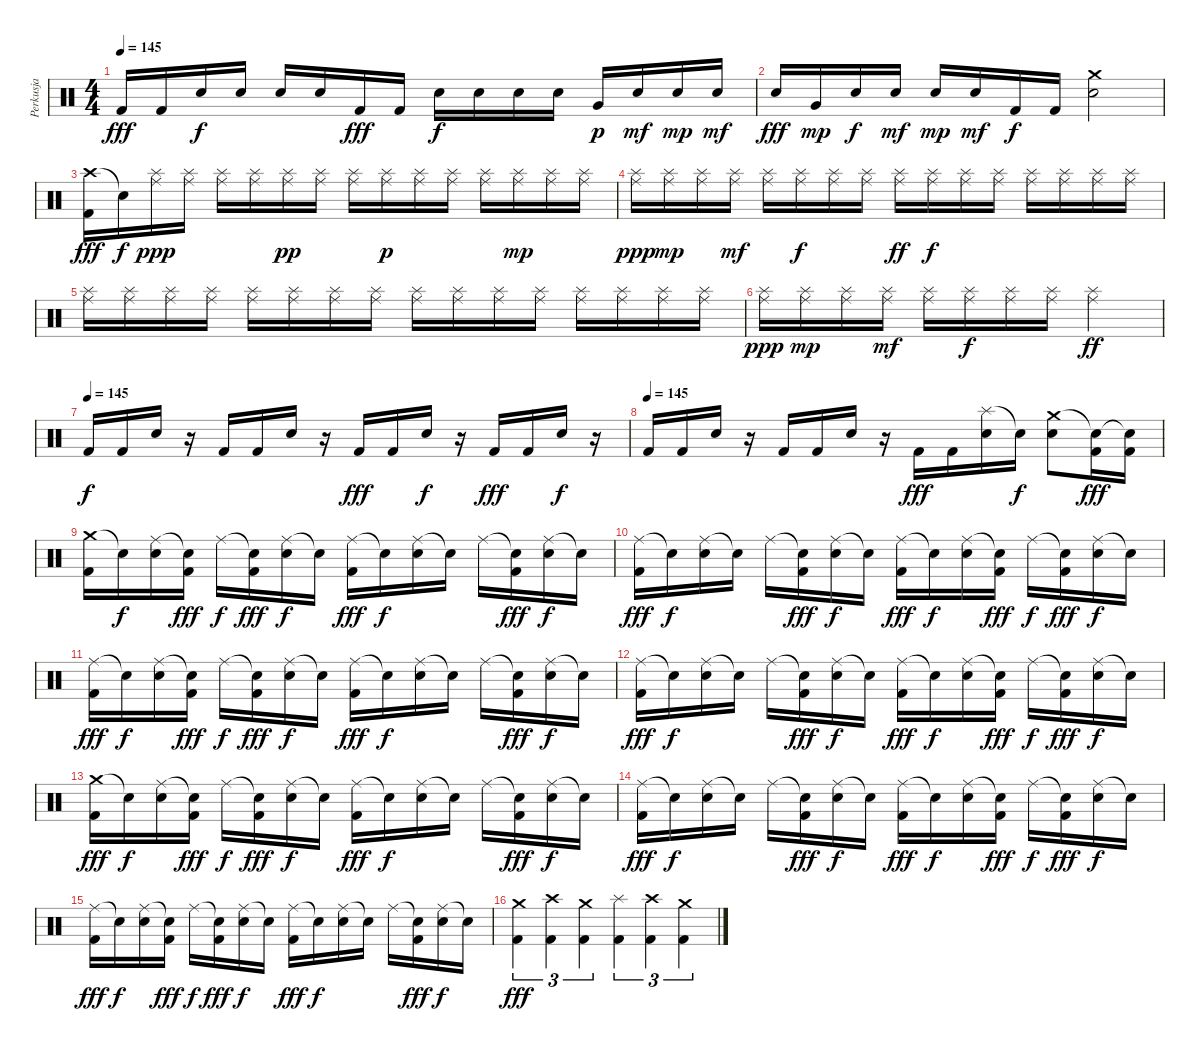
\track ("Perkusja" "Perkusja") {instrument percussion}
\staff {score}
\articulation defaults
\ts (4 4)
\tempo 145
\tempo 165
\tempo 145
\clef neutral
\ks c "Kick (hit) 2".16{dy fff} "Kick (hit) 2".16 "Electric Snare (hit)".16{dy f} "Electric Snare (hit)".16 "Electric Snare (hit)".16 "Electric Snare (hit)".16 "Kick (hit) 2".16{dy fff} "Kick (hit) 2".16 "Electric Snare (hit)".16{dy f} "Electric Snare (hit)".16 "Electric Snare (hit)".16 "Electric Snare (hit)".16 "Very Low Tom (hit)".16{dy p} "Electric Snare (hit)".16{dy mf} "Electric Snare (hit)".16{dy mp} "Electric Snare (hit)".16{dy mf}
|
"Electric Snare (hit)".16{dy fff} "Very Low Tom (hit)".16{dy mp} "Electric Snare (hit)".16{dy f} "Electric Snare (hit)".16{dy mf} "Electric Snare (hit)".16{dy mp} "Electric Snare (hit)".16{dy mf} "Kick (hit) 2".16{dy f} "Kick (hit) 2".16 ("Crash medium (hit)" "Electric Snare (hit)").2 |
("Crash high (hit)" "Kick (hit) 2").16{dy fff} "Snare (hit)"{t}.16{dy f} ("Splash (hit)" "Ride (middle)").16{dy ppp} ("Splash (hit)" "Ride (middle)").16 ("Splash (hit)" "Ride (middle)").16 ("Splash (hit)" "Ride (middle)").16 ("Splash (hit)" "Ride (middle)").16{dy pp} ("Splash (hit)" "Ride (middle)").16 ("Splash (hit)" "Ride (middle)").16 ("Splash (hit)" "Ride (middle)").16{dy p} ("Splash (hit)" "Ride (middle)").16 ("Splash (hit)" "Ride (middle)").16 ("Splash (hit)" "Ride (middle)").16 ("Splash (hit)" "Ride (middle)").16{dy mp} ("Splash (hit)" "Ride (middle)").16 ("Splash (hit)" "Ride (middle)").16 |
("Splash (hit)" "Ride (middle)").16{dy ppp} ("Splash (hit)" "Ride (middle)").16{dy mp} ("Splash (hit)" "Ride (middle)").16 ("Splash (hit)" "Ride (middle)").16{dy mf} ("Splash (hit)" "Ride (middle)").16 ("Splash (hit)" "Ride (middle)").16{dy f} ("Splash (hit)" "Ride (middle)").16 ("Splash (hit)" "Ride (middle)").16 ("Splash (hit)" "Ride (middle)").16{dy ff} ("Splash (hit)" "Ride (middle)").16{dy f} ("Splash (hit)" "Ride (middle)").16 ("Splash (hit)" "Ride (middle)").16 ("Splash (hit)" "Ride (middle)").16 ("Splash (hit)" "Ride (middle)").16 ("Splash (hit)" "Ride (middle)").16 ("Splash (hit)" "Ride (middle)").16 |
("Splash (hit)" "Ride (middle)").16 ("Splash (hit)" "Ride (middle)").16 ("Splash (hit)" "Ride (middle)").16 ("Splash (hit)" "Ride (middle)").16 ("Splash (hit)" "Ride (middle)").16 ("Splash (hit)" "Ride (middle)").16 ("Splash (hit)" "Ride (middle)").16 ("Splash (hit)" "Ride (middle)").16 ("Splash (hit)" "Ride (middle)").16 ("Splash (hit)" "Ride (middle)").16 ("Splash (hit)" "Ride (middle)").16 ("Splash (hit)" "Ride (middle)").16 ("Splash (hit)" "Ride (middle)").16 ("Splash (hit)" "Ride (middle)").16 ("Splash (hit)" "Ride (middle)").16 ("Splash (hit)" "Ride (middle)").16 |
("Splash (hit)" "Ride (middle)").16{dy ppp} ("Splash (hit)" "Ride (middle)").16{dy mp} ("Splash (hit)" "Ride (middle)").16 ("Splash (hit)" "Ride (middle)").16{dy mf} ("Splash (hit)" "Ride (middle)").16 ("Splash (hit)" "Ride (middle)").16{dy f} ("Splash (hit)" "Ride (middle)").16 ("Splash (hit)" "Ride (middle)").16 ("Splash (hit)" "Ride (middle)").2{dy ff} |
\tempo (145)
"Kick (hit) 2".16{dy f} "Kick (hit) 2".16 "Electric Snare (hit)".16 r.16 "Kick (hit) 2".16 "Kick (hit) 2".16 "Electric Snare (hit)".16 r.16 "Kick (hit) 2".16{dy fff} "Kick (hit) 2".16 "Electric Snare (hit)".16{dy f} r.16 "Kick (hit) 2".16{dy fff} "Kick (hit) 2".16 "Electric Snare (hit)".16{dy f} r.16 |
\tempo (145)
"Kick (hit) 2".16 "Kick (hit) 2".16 "Electric Snare (hit)".16 r.16 "Kick (hit) 2".16 "Kick (hit) 2".16 "Electric Snare (hit)".16 r.16 "Kick (hit) 2".16{dy fff} "Kick (hit) 2".16 ("Splash (hit)" "Electric Snare (hit)").16 "Snare (hit)"{t}.16{dy f} ("Crash medium (hit)" "Electric Snare (hit)").8 ("Snare (hit)"{t} "Kick (hit) 2").16{dy fff} ("Snare (hit)"{t} "Kick (hit) 2").16 |
("Crash medium (hit)" "Kick (hit) 2").16 "Snare (hit)"{t}.16{dy f} ("Ride (middle)" "Electric Snare (hit)").16 ("Snare (hit)"{t} "Kick (hit) 2").16{dy fff} "Ride (middle)".16{dy f} ("Snare (hit)"{t} "Kick (hit) 2").16{dy fff} ("Ride (middle)" "Electric Snare (hit)").16{dy f} "Snare (hit)"{t}.16 ("Ride (middle)" "Kick (hit) 2").16{dy fff} "Snare (hit)"{t}.16{dy f} ("Ride (middle)" "Electric Snare (hit)").16 "Snare (hit)"{t}.16 "Ride (middle)".16 ("Snare (hit)"{t} "Kick (hit) 2").16{dy fff} ("Ride (middle)" "Electric Snare (hit)").16{dy f} "Snare (hit)"{t}.16 |
("Ride (middle)" "Kick (hit) 2").16{dy fff} "Snare (hit)"{t}.16{dy f} ("Ride (middle)" "Electric Snare (hit)").16 "Snare (hit)"{t}.16 "Ride (middle)".16 ("Snare (hit)"{t} "Kick (hit) 2").16{dy fff} ("Ride (middle)" "Electric Snare (hit)").16{dy f} "Snare (hit)"{t}.16 ("Ride (middle)" "Kick (hit) 2").16{dy fff} "Snare (hit)"{t}.16{dy f} ("Ride (middle)" "Electric Snare (hit)").16 ("Snare (hit)"{t} "Kick (hit) 2").16{dy fff} "Ride (middle)".16{dy f} ("Snare (hit)"{t} "Kick (hit) 2").16{dy fff} ("Ride (middle)" "Electric Snare (hit)").16{dy f} "Snare (hit)"{t}.16 |
("Ride (middle)" "Kick (hit) 2").16{dy fff} "Snare (hit)"{t}.16{dy f} ("Ride (middle)" "Electric Snare (hit)").16 ("Snare (hit)"{t} "Kick (hit) 2").16{dy fff} "Ride (middle)".16{dy f} ("Snare (hit)"{t} "Kick (hit) 2").16{dy fff} ("Ride (middle)" "Electric Snare (hit)").16{dy f} "Snare (hit)"{t}.16 ("Ride (middle)" "Kick (hit) 2").16{dy fff} "Snare (hit)"{t}.16{dy f} ("Ride (middle)" "Electric Snare (hit)").16 "Snare (hit)"{t}.16 "Ride (middle)".16 ("Snare (hit)"{t} "Kick (hit) 2").16{dy fff} ("Ride (middle)" "Electric Snare (hit)").16{dy f} "Snare (hit)"{t}.16 |
("Ride (middle)" "Kick (hit) 2").16{dy fff} "Snare (hit)"{t}.16{dy f} ("Ride (middle)" "Electric Snare (hit)").16 "Snare (hit)"{t}.16 "Ride (middle)".16 ("Snare (hit)"{t} "Kick (hit) 2").16{dy fff} ("Ride (middle)" "Electric Snare (hit)").16{dy f} "Snare (hit)"{t}.16 ("Ride (middle)" "Kick (hit) 2").16{dy fff} "Snare (hit)"{t}.16{dy f} ("Ride (middle)" "Electric Snare (hit)").16 ("Snare (hit)"{t} "Kick (hit) 2").16{dy fff} "Ride (middle)".16{dy f} ("Snare (hit)"{t} "Kick (hit) 2").16{dy fff} ("Ride (middle)" "Electric Snare (hit)").16{dy f} "Snare (hit)"{t}.16 |
("Crash medium (hit)" "Kick (hit) 2").16{dy fff} "Snare (hit)"{t}.16{dy f} ("Ride (middle)" "Electric Snare (hit)").16 ("Snare (hit)"{t} "Kick (hit) 2").16{dy fff} "Ride (middle)".16{dy f} ("Snare (hit)"{t} "Kick (hit) 2").16{dy fff} ("Ride (middle)" "Electric Snare (hit)").16{dy f} "Snare (hit)"{t}.16 ("Ride (middle)" "Kick (hit) 2").16{dy fff} "Snare (hit)"{t}.16{dy f} ("Ride (middle)" "Electric Snare (hit)").16 "Snare (hit)"{t}.16 "Ride (middle)".16 ("Snare (hit)"{t} "Kick (hit) 2").16{dy fff} ("Ride (middle)" "Electric Snare (hit)").16{dy f} "Snare (hit)"{t}.16 |
("Ride (middle)" "Kick (hit) 2").16{dy fff} "Snare (hit)"{t}.16{dy f} ("Ride (middle)" "Electric Snare (hit)").16 "Snare (hit)"{t}.16 "Ride (middle)".16 ("Snare (hit)"{t} "Kick (hit) 2").16{dy fff} ("Ride (middle)" "Electric Snare (hit)").16{dy f} "Snare (hit)"{t}.16 ("Ride (middle)" "Kick (hit) 2").16{dy fff} "Snare (hit)"{t}.16{dy f} ("Ride (middle)" "Electric Snare (hit)").16 ("Snare (hit)"{t} "Kick (hit) 2").16{dy fff} "Ride (middle)".16{dy f} ("Snare (hit)"{t} "Kick (hit) 2").16{dy fff} ("Ride (middle)" "Electric Snare (hit)").16{dy f} "Snare (hit)"{t}.16 |
("Ride (middle)" "Kick (hit) 2").16{dy fff} "Snare (hit)"{t}.16{dy f} ("Ride (middle)" "Electric Snare (hit)").16 ("Snare (hit)"{t} "Kick (hit) 2").16{dy fff} "Ride (middle)".16{dy f} ("Snare (hit)"{t} "Kick (hit) 2").16{dy fff} ("Ride (middle)" "Electric Snare (hit)").16{dy f} "Snare (hit)"{t}.16 ("Ride (middle)" "Kick (hit) 2").16{dy fff} "Snare (hit)"{t}.16{dy f} ("Ride (middle)" "Electric Snare (hit)").16 "Snare (hit)"{t}.16 "Ride (middle)".16 ("Snare (hit)"{t} "Kick (hit) 2").16{dy fff} ("Ride (middle)" "Electric Snare (hit)").16{dy f} "Snare (hit)"{t}.16 |
("Crash medium (hit)" "Kick (hit) 2").4{tu (3 2) dy fff} ("Crash high (hit)" "Kick (hit) 2").4{tu (3 2)} ("Crash medium (hit)" "Kick (hit) 2").4{tu (3 2)} ("Splash (hit)" "Kick (hit) 2").4{tu (3 2)} ("Crash high (hit)" "Kick (hit) 2").4{tu (3 2)} ("Crash medium (hit)" "Kick (hit) 2").4{tu (3 2)}
